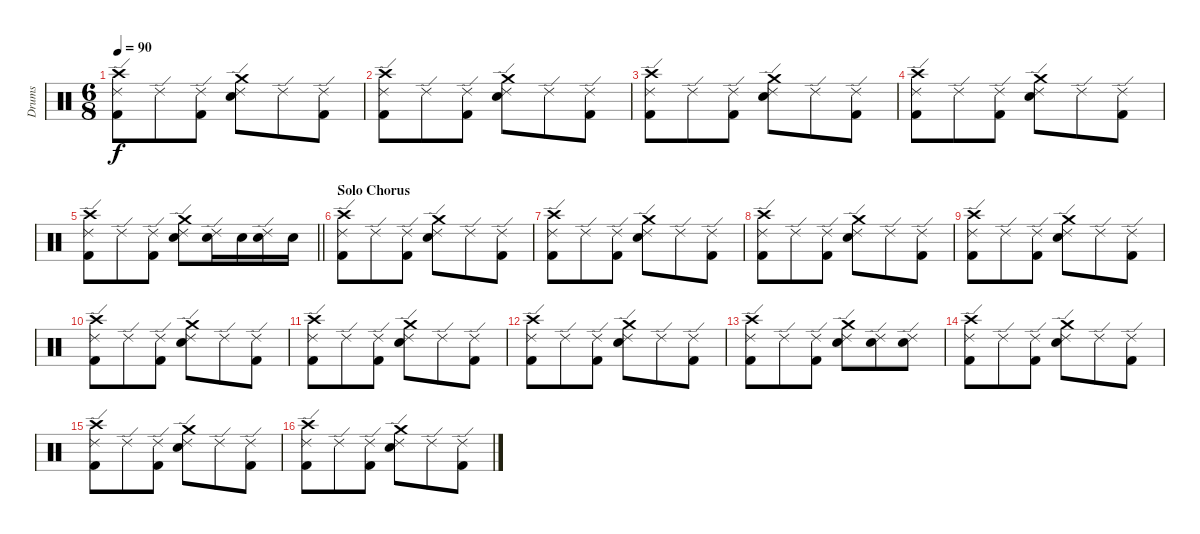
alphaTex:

\track ("Drums" "Drums") {instrument percussion}
\staff {score}
\articulation defaults
\ts (6 8)
\tempo 90
\clef neutral
\ks c
("Ride (edge) 2" "Kick (hit) 2" "Crash high (hit)").8{dy f} "Ride (edge) 2".8 ("Ride (edge) 2" "Kick (hit) 2").8 ("Ride (edge) 2" "Snare (hit) 2" "Crash medium (hit)").8 "Ride (edge) 2".8 ("Ride (edge) 2" "Kick (hit) 2").8 |
("Ride (edge) 2" "Kick (hit) 2" "Crash high (hit)").8 "Ride (edge) 2".8 ("Ride (edge) 2" "Kick (hit) 2").8 ("Ride (edge) 2" "Snare (hit) 2" "Crash medium (hit)").8 "Ride (edge) 2".8 ("Ride (edge) 2" "Kick (hit) 2").8 |
("Ride (edge) 2" "Kick (hit) 2" "Crash high (hit)").8 "Ride (edge) 2".8 ("Ride (edge) 2" "Kick (hit) 2").8 ("Ride (edge) 2" "Snare (hit) 2" "Crash medium (hit)").8 "Ride (edge) 2".8 ("Ride (edge) 2" "Kick (hit) 2").8 |
("Ride (edge) 2" "Kick (hit) 2" "Crash high (hit)").8 "Ride (edge) 2".8 ("Ride (edge) 2" "Kick (hit) 2").8 ("Ride (edge) 2" "Snare (hit) 2" "Crash medium (hit)").8 "Ride (edge) 2".8 ("Ride (edge) 2" "Kick (hit) 2").8 |
\barLineRight lightlight
("Ride (edge) 2" "Kick (hit) 2" "Crash high (hit)").8 "Ride (edge) 2".8 ("Ride (edge) 2" "Kick (hit) 2").8 ("Ride (edge) 2" "Snare (hit) 2" "Crash medium (hit)").8 ("Ride (edge) 2" "Snare (hit) 2").16 "Snare (hit) 2".16 ("Ride (edge) 2" "Snare (hit) 2").16 "Snare (hit) 2".16 |
\section ("" "Solo Chorus")
("Ride (edge) 2" "Kick (hit) 2" "Crash high (hit)").8 "Ride (edge) 2".8 ("Ride (edge) 2" "Kick (hit) 2").8 ("Ride (edge) 2" "Snare (hit) 2" "Crash medium (hit)").8 "Ride (edge) 2".8 ("Ride (edge) 2" "Kick (hit) 2").8 |
("Ride (edge) 2" "Kick (hit) 2" "Crash high (hit)").8 "Ride (edge) 2".8 ("Ride (edge) 2" "Kick (hit) 2").8 ("Ride (edge) 2" "Snare (hit) 2" "Crash medium (hit)").8 "Ride (edge) 2".8 ("Ride (edge) 2" "Kick (hit) 2").8 |
("Ride (edge) 2" "Kick (hit) 2" "Crash high (hit)").8 "Ride (edge) 2".8 ("Ride (edge) 2" "Kick (hit) 2").8 ("Ride (edge) 2" "Snare (hit) 2" "Crash medium (hit)").8 "Ride (edge) 2".8 ("Ride (edge) 2" "Kick (hit) 2").8 |
("Ride (edge) 2" "Kick (hit) 2" "Crash high (hit)").8 "Ride (edge) 2".8 ("Ride (edge) 2" "Kick (hit) 2").8 ("Ride (edge) 2" "Snare (hit) 2" "Crash medium (hit)").8 "Ride (edge) 2".8 ("Ride (edge) 2" "Kick (hit) 2").8 |
("Ride (edge) 2" "Kick (hit) 2" "Crash high (hit)").8 "Ride (edge) 2".8 ("Ride (edge) 2" "Kick (hit) 2").8 ("Ride (edge) 2" "Snare (hit) 2" "Crash medium (hit)").8 "Ride (edge) 2".8 ("Ride (edge) 2" "Kick (hit) 2").8 |
("Ride (edge) 2" "Kick (hit) 2" "Crash high (hit)").8 "Ride (edge) 2".8 ("Ride (edge) 2" "Kick (hit) 2").8 ("Ride (edge) 2" "Snare (hit) 2" "Crash medium (hit)").8 "Ride (edge) 2".8 ("Ride (edge) 2" "Kick (hit) 2").8 |
("Ride (edge) 2" "Kick (hit) 2" "Crash high (hit)").8 "Ride (edge) 2".8 ("Ride (edge) 2" "Kick (hit) 2").8 ("Ride (edge) 2" "Snare (hit) 2" "Crash medium (hit)").8 "Ride (edge) 2".8 ("Ride (edge) 2" "Kick (hit) 2").8 |
("Ride (edge) 2" "Kick (hit) 2" "Crash high (hit)").8 "Ride (edge) 2".8 ("Ride (edge) 2" "Kick (hit) 2").8 ("Ride (edge) 2" "Snare (hit) 2" "Crash medium (hit)").8 ("Ride (edge) 2" "Snare (hit) 2").8 ("Ride (edge) 2" "Snare (hit) 2").8 |
("Ride (edge) 2" "Kick (hit) 2" "Crash high (hit)").8 "Ride (edge) 2".8 ("Ride (edge) 2" "Kick (hit) 2").8 ("Ride (edge) 2" "Snare (hit) 2" "Crash medium (hit)").8 "Ride (edge) 2".8 ("Ride (edge) 2" "Kick (hit) 2").8 |
("Ride (edge) 2" "Kick (hit) 2" "Crash high (hit)").8 "Ride (edge) 2".8 ("Ride (edge) 2" "Kick (hit) 2").8 ("Ride (edge) 2" "Snare (hit) 2" "Crash medium (hit)").8 "Ride (edge) 2".8 ("Ride (edge) 2" "Kick (hit) 2").8 |
("Ride (edge) 2" "Kick (hit) 2" "Crash high (hit)").8 "Ride (edge) 2".8 ("Ride (edge) 2" "Kick (hit) 2").8 ("Ride (edge) 2" "Snare (hit) 2" "Crash medium (hit)").8 "Ride (edge) 2".8 ("Ride (edge) 2" "Kick (hit) 2").8
